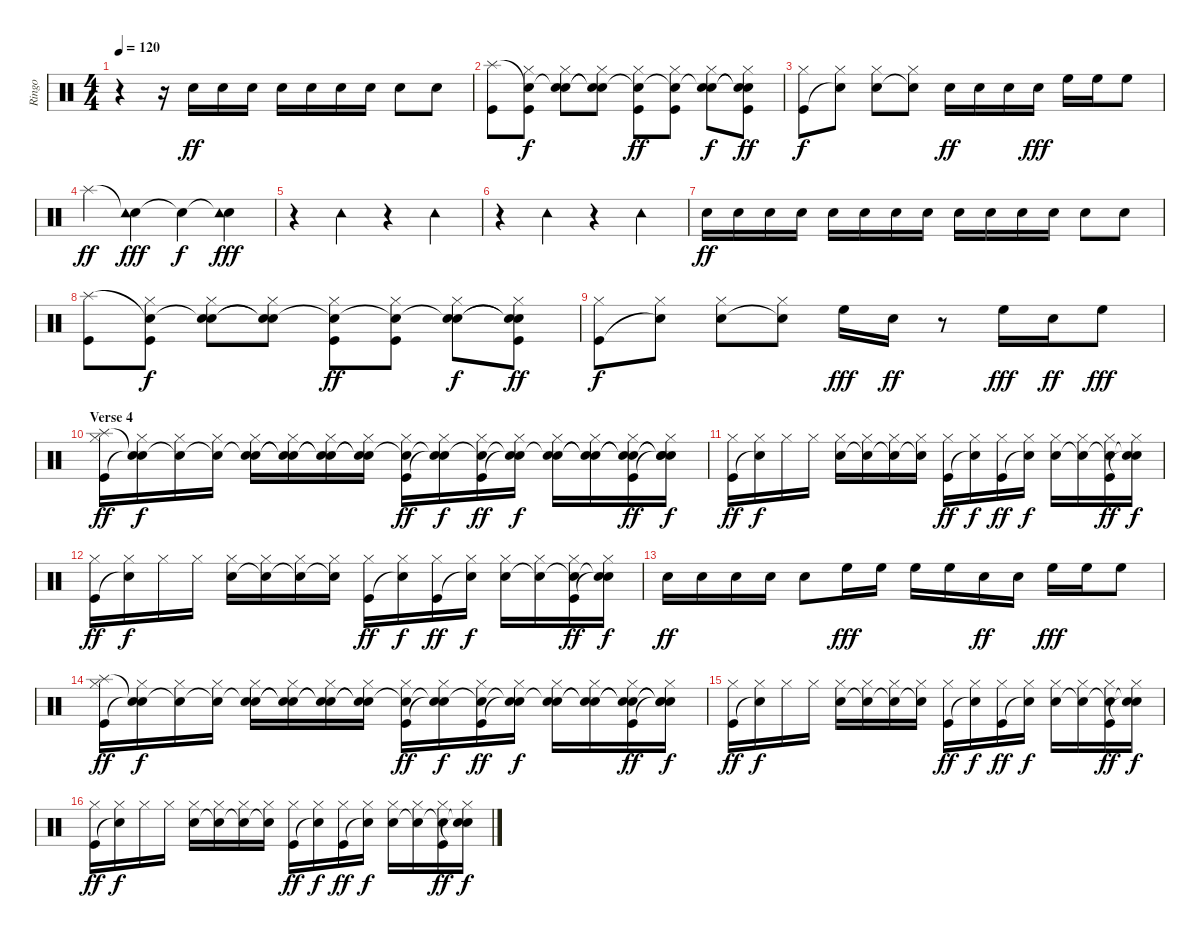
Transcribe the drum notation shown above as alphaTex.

\track ("Ringo" "Ringo") {instrument percussion}
\staff {score}
\articulation defaults
\ts (4 4)
\tempo 120
\clef neutral
\ks c
r.4{dy fff} r.16 "Electric Snare (hit)".16{dy ff} "Electric Snare (hit)".16 "Electric Snare (hit)".16 "Electric Snare (hit)".16 "Electric Snare (hit)".16 "Electric Snare (hit)".16 "Electric Snare (hit)".16 "Electric Snare (hit)".8 "Electric Snare (hit)".8 |
("Splash (hit)" "Kick (hit)").8 ("Snare (hit)"{t} "Hi-Hat (closed)" "Kick (hit)").8{dy f} ("Snare (hit)"{t} "Hi-Hat (closed)" "Electric Snare (hit)").8 ("Snare (hit)"{t} "Hi-Hat (closed)" "Snare (hit)"{t}).8 ("Snare (hit)"{t} "Hi-Hat (closed)" "Kick (hit)").8{dy ff} ("Snare (hit)"{t} "Hi-Hat (closed)" "Kick (hit)").8 ("Snare (hit)"{t} "Hi-Hat (closed)" "Electric Snare (hit)").8{dy f} ("Snare (hit)"{t} "Hi-Hat (closed)" "Snare (hit)"{t} "Kick (hit)").8{dy ff} |
("Hi-Hat (closed)" "Kick (hit)").8{dy f} ("Hi-Hat (closed)" "Snare (hit)"{t}).8 ("Hi-Hat (closed)" "Electric Snare (hit)").8 ("Hi-Hat (closed)" "Snare (hit)"{t}).8 "Electric Snare (hit)".16{dy ff} "Electric Snare (hit)".16 "Electric Snare (hit)".16 "Electric Snare (hit)".16{dy fff} "High Floor Tom (hit)".16 "High Floor Tom (hit)".16 "High Floor Tom (hit)".8 |
"Splash (hit)".4{dy ff} ("Snare (hit)"{t} "Tambourine (hit)").4{dy fff} "Snare (hit)"{t}.4{dy f} ("Snare (hit)"{t} "Tambourine (hit)").4{dy fff} |
r.4 "Tambourine (hit)".4 r.4 "Tambourine (hit)".4 |
r.4 "Tambourine (hit)".4 r.4 "Tambourine (hit)".4 |
"Electric Snare (hit)".16{dy ff} "Electric Snare (hit)".16 "Electric Snare (hit)".16 "Electric Snare (hit)".16 "Electric Snare (hit)".16 "Electric Snare (hit)".16 "Electric Snare (hit)".16 "Electric Snare (hit)".16 "Electric Snare (hit)".16 "Electric Snare (hit)".16 "Electric Snare (hit)".16 "Electric Snare (hit)".16 "Electric Snare (hit)".8 "Electric Snare (hit)".8 |
("Splash (hit)" "Kick (hit)").8 ("Snare (hit)"{t} "Hi-Hat (closed)" "Kick (hit)").8{dy f} ("Snare (hit)"{t} "Hi-Hat (closed)" "Electric Snare (hit)").8 ("Snare (hit)"{t} "Hi-Hat (closed)" "Snare (hit)"{t}).8 ("Snare (hit)"{t} "Hi-Hat (closed)" "Kick (hit)").8{dy ff} ("Snare (hit)"{t} "Hi-Hat (closed)" "Kick (hit)").8 ("Snare (hit)"{t} "Hi-Hat (closed)" "Electric Snare (hit)").8{dy f} ("Snare (hit)"{t} "Hi-Hat (closed)" "Snare (hit)"{t} "Kick (hit)").8{dy ff} |
("Hi-Hat (closed)" "Kick (hit)").8{dy f} ("Hi-Hat (closed)" "Snare (hit)"{t}).8 ("Hi-Hat (closed)" "Electric Snare (hit)").8 ("Hi-Hat (closed)" "Snare (hit)"{t}).8 "High Floor Tom (hit)".16{dy fff} "Electric Snare (hit)".16{dy ff} r.8 "High Floor Tom (hit)".16{dy fff} "Electric Snare (hit)".16{dy ff} "High Floor Tom (hit)".8{dy fff} |
\section ("" "Verse 4")
("Splash (hit)" "Hi-Hat (closed)" "Kick (hit)").16{dy ff} ("Snare (hit)"{t} "Hi-Hat (closed)" "Snare (hit)"{t}).16{dy f} ("Snare (hit)"{t} "Hi-Hat (closed)").16 ("Snare (hit)"{t} "Hi-Hat (closed)").16 ("Snare (hit)"{t} "Hi-Hat (closed)" "Electric Snare (hit)").16 ("Snare (hit)"{t} "Hi-Hat (closed)" "Snare (hit)"{t}).16 ("Snare (hit)"{t} "Hi-Hat (closed)" "Snare (hit)"{t}).16 ("Snare (hit)"{t} "Hi-Hat (closed)" "Snare (hit)"{t}).16 ("Snare (hit)"{t} "Hi-Hat (closed)" "Kick (hit)").16{dy ff} ("Snare (hit)"{t} "Hi-Hat (closed)" "Snare (hit)"{t}).16{dy f} ("Snare (hit)"{t} "Hi-Hat (closed)" "Kick (hit)").16{dy ff} ("Snare (hit)"{t} "Hi-Hat (closed)" "Snare (hit)"{t}).16{dy f} ("Snare (hit)"{t} "Hi-Hat (closed)" "Electric Snare (hit)").16 ("Snare (hit)"{t} "Hi-Hat (closed)" "Snare (hit)"{t}).16 ("Snare (hit)"{t} "Hi-Hat (closed)" "Snare (hit)"{t} "Kick (hit)").16{dy ff} ("Snare (hit)"{t} "Hi-Hat (closed)" "Snare (hit)"{t} "Snare (hit)"{t}).16{dy f} |
("Hi-Hat (closed)" "Kick (hit)").16{dy ff} ("Hi-Hat (closed)" "Snare (hit)"{t}).16{dy f} "Hi-Hat (closed)".16 "Hi-Hat (closed)".16 ("Hi-Hat (closed)" "Electric Snare (hit)").16 ("Hi-Hat (closed)" "Snare (hit)"{t}).16 ("Hi-Hat (closed)" "Snare (hit)"{t}).16 ("Hi-Hat (closed)" "Snare (hit)"{t}).16 ("Hi-Hat (closed)" "Kick (hit)").16{dy ff} ("Hi-Hat (closed)" "Snare (hit)"{t}).16{dy f} ("Hi-Hat (closed)" "Kick (hit)").16{dy ff} ("Hi-Hat (closed)" "Snare (hit)"{t}).16{dy f} ("Hi-Hat (closed)" "Electric Snare (hit)").16 ("Hi-Hat (closed)" "Snare (hit)"{t}).16 ("Hi-Hat (closed)" "Snare (hit)"{t} "Kick (hit)").16{dy ff} ("Hi-Hat (closed)" "Snare (hit)"{t} "Snare (hit)"{t}).16{dy f} |
("Hi-Hat (closed)" "Kick (hit)").16{dy ff} ("Hi-Hat (closed)" "Snare (hit)"{t}).16{dy f} "Hi-Hat (closed)".16 "Hi-Hat (closed)".16 ("Hi-Hat (closed)" "Electric Snare (hit)").16 ("Hi-Hat (closed)" "Snare (hit)"{t}).16 ("Hi-Hat (closed)" "Snare (hit)"{t}).16 ("Hi-Hat (closed)" "Snare (hit)"{t}).16 ("Hi-Hat (closed)" "Kick (hit)").16{dy ff} ("Hi-Hat (closed)" "Snare (hit)"{t}).16{dy f} ("Hi-Hat (closed)" "Kick (hit)").16{dy ff} ("Hi-Hat (closed)" "Snare (hit)"{t}).16{dy f} ("Hi-Hat (closed)" "Electric Snare (hit)").16 ("Hi-Hat (closed)" "Snare (hit)"{t}).16 ("Hi-Hat (closed)" "Snare (hit)"{t} "Kick (hit)").16{dy ff} ("Hi-Hat (closed)" "Snare (hit)"{t} "Snare (hit)"{t}).16{dy f} |
"Electric Snare (hit)".16{dy ff} "Electric Snare (hit)".16 "Electric Snare (hit)".16 "Electric Snare (hit)".16 "Electric Snare (hit)".8 "High Floor Tom (hit)".16{dy fff} "High Floor Tom (hit)".16 "High Floor Tom (hit)".16 "High Floor Tom (hit)".16 "Electric Snare (hit)".16{dy ff} "Electric Snare (hit)".16 "High Floor Tom (hit)".16{dy fff} "High Floor Tom (hit)".16 "High Floor Tom (hit)".8 |
("Splash (hit)" "Hi-Hat (closed)" "Kick (hit)").16{dy ff} ("Snare (hit)"{t} "Hi-Hat (closed)" "Snare (hit)"{t}).16{dy f} ("Snare (hit)"{t} "Hi-Hat (closed)").16 ("Snare (hit)"{t} "Hi-Hat (closed)").16 ("Snare (hit)"{t} "Hi-Hat (closed)" "Electric Snare (hit)").16 ("Snare (hit)"{t} "Hi-Hat (closed)" "Snare (hit)"{t}).16 ("Snare (hit)"{t} "Hi-Hat (closed)" "Snare (hit)"{t}).16 ("Snare (hit)"{t} "Hi-Hat (closed)" "Snare (hit)"{t}).16 ("Snare (hit)"{t} "Hi-Hat (closed)" "Kick (hit)").16{dy ff} ("Snare (hit)"{t} "Hi-Hat (closed)" "Snare (hit)"{t}).16{dy f} ("Snare (hit)"{t} "Hi-Hat (closed)" "Kick (hit)").16{dy ff} ("Snare (hit)"{t} "Hi-Hat (closed)" "Snare (hit)"{t}).16{dy f} ("Snare (hit)"{t} "Hi-Hat (closed)" "Electric Snare (hit)").16 ("Snare (hit)"{t} "Hi-Hat (closed)" "Snare (hit)"{t}).16 ("Snare (hit)"{t} "Hi-Hat (closed)" "Snare (hit)"{t} "Kick (hit)").16{dy ff} ("Snare (hit)"{t} "Hi-Hat (closed)" "Snare (hit)"{t} "Snare (hit)"{t}).16{dy f} |
("Hi-Hat (closed)" "Kick (hit)").16{dy ff} ("Hi-Hat (closed)" "Snare (hit)"{t}).16{dy f} "Hi-Hat (closed)".16 "Hi-Hat (closed)".16 ("Hi-Hat (closed)" "Electric Snare (hit)").16 ("Hi-Hat (closed)" "Snare (hit)"{t}).16 ("Hi-Hat (closed)" "Snare (hit)"{t}).16 ("Hi-Hat (closed)" "Snare (hit)"{t}).16 ("Hi-Hat (closed)" "Kick (hit)").16{dy ff} ("Hi-Hat (closed)" "Snare (hit)"{t}).16{dy f} ("Hi-Hat (closed)" "Kick (hit)").16{dy ff} ("Hi-Hat (closed)" "Snare (hit)"{t}).16{dy f} ("Hi-Hat (closed)" "Electric Snare (hit)").16 ("Hi-Hat (closed)" "Snare (hit)"{t}).16 ("Hi-Hat (closed)" "Snare (hit)"{t} "Kick (hit)").16{dy ff} ("Hi-Hat (closed)" "Snare (hit)"{t} "Snare (hit)"{t}).16{dy f} |
("Hi-Hat (closed)" "Kick (hit)").16{dy ff} ("Hi-Hat (closed)" "Snare (hit)"{t}).16{dy f} "Hi-Hat (closed)".16 "Hi-Hat (closed)".16 ("Hi-Hat (closed)" "Electric Snare (hit)").16 ("Hi-Hat (closed)" "Snare (hit)"{t}).16 ("Hi-Hat (closed)" "Snare (hit)"{t}).16 ("Hi-Hat (closed)" "Snare (hit)"{t}).16 ("Hi-Hat (closed)" "Kick (hit)").16{dy ff} ("Hi-Hat (closed)" "Snare (hit)"{t}).16{dy f} ("Hi-Hat (closed)" "Kick (hit)").16{dy ff} ("Hi-Hat (closed)" "Snare (hit)"{t}).16{dy f} ("Hi-Hat (closed)" "Electric Snare (hit)").16 ("Hi-Hat (closed)" "Snare (hit)"{t}).16 ("Hi-Hat (closed)" "Snare (hit)"{t} "Kick (hit)").16{dy ff} ("Hi-Hat (closed)" "Snare (hit)"{t} "Snare (hit)"{t}).16{dy f}
